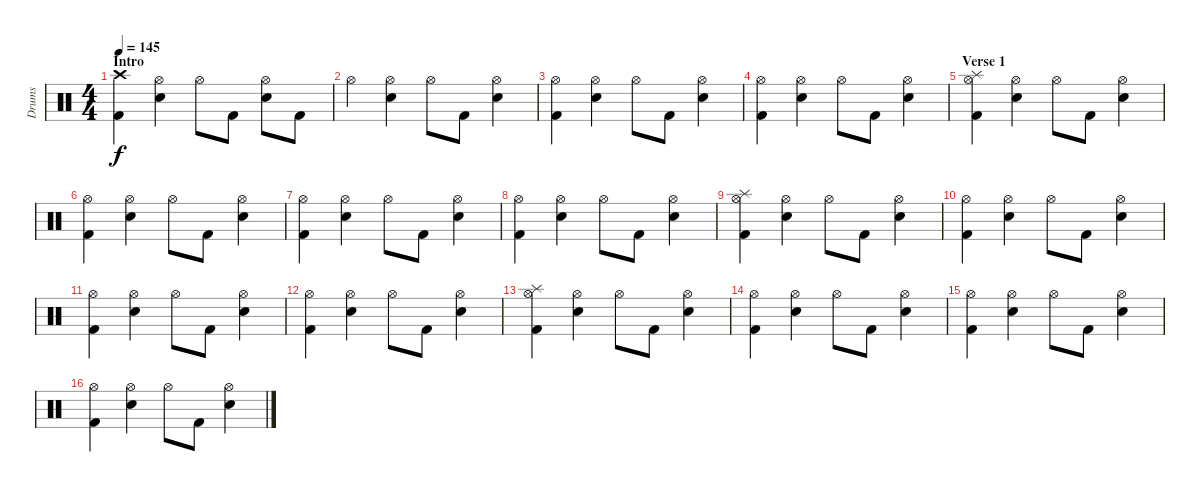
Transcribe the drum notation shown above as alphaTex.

\track ("Drums" "Drums") {instrument percussion}
\staff {score}
\articulation defaults
\ts (4 4)
\section ("" "Intro")
\tempo 145
\clef neutral
\ks c
("Crash high (hit)" "Kick (hit) 2").4{dy f} ("Hi-Hat (open)" "Snare (hit) 2").4 "Hi-Hat (open)".8 "Kick (hit) 2".8 ("Hi-Hat (open)" "Snare (hit) 2").8 "Kick (hit) 2".8 |
"Hi-Hat (open)".4 ("Hi-Hat (open)" "Snare (hit) 2").4 "Hi-Hat (open)".8 "Kick (hit) 2".8 ("Hi-Hat (open)" "Snare (hit) 2").4 |
("Hi-Hat (open)" "Kick (hit) 2").4 ("Hi-Hat (open)" "Snare (hit) 2").4 "Hi-Hat (open)".8 "Kick (hit) 2".8 ("Hi-Hat (open)" "Snare (hit) 2").4 |
("Hi-Hat (open)" "Kick (hit) 2").4 ("Hi-Hat (open)" "Snare (hit) 2").4 "Hi-Hat (open)".8 "Kick (hit) 2".8 ("Hi-Hat (open)" "Snare (hit) 2").4 |
\section ("" "Verse 1")
("Splash (hit)" "Hi-Hat (open)" "Kick (hit) 2").4 ("Hi-Hat (open)" "Snare (hit) 2").4 "Hi-Hat (open)".8 "Kick (hit) 2".8 ("Hi-Hat (open)" "Snare (hit) 2").4 |
("Hi-Hat (open)" "Kick (hit) 2").4 ("Hi-Hat (open)" "Snare (hit) 2").4 "Hi-Hat (open)".8 "Kick (hit) 2".8 ("Hi-Hat (open)" "Snare (hit) 2").4 |
("Hi-Hat (open)" "Kick (hit) 2").4 ("Hi-Hat (open)" "Snare (hit) 2").4 "Hi-Hat (open)".8 "Kick (hit) 2".8 ("Hi-Hat (open)" "Snare (hit) 2").4 |
("Hi-Hat (open)" "Kick (hit) 2").4 ("Hi-Hat (open)" "Snare (hit) 2").4 "Hi-Hat (open)".8 "Kick (hit) 2".8 ("Hi-Hat (open)" "Snare (hit) 2").4 |
("Splash (hit)" "Hi-Hat (open)" "Kick (hit) 2").4 ("Hi-Hat (open)" "Snare (hit) 2").4 "Hi-Hat (open)".8 "Kick (hit) 2".8 ("Hi-Hat (open)" "Snare (hit) 2").4 |
("Hi-Hat (open)" "Kick (hit) 2").4 ("Hi-Hat (open)" "Snare (hit) 2").4 "Hi-Hat (open)".8 "Kick (hit) 2".8 ("Hi-Hat (open)" "Snare (hit) 2").4 |
("Hi-Hat (open)" "Kick (hit) 2").4 ("Hi-Hat (open)" "Snare (hit) 2").4 "Hi-Hat (open)".8 "Kick (hit) 2".8 ("Hi-Hat (open)" "Snare (hit) 2").4 |
("Hi-Hat (open)" "Kick (hit) 2").4 ("Hi-Hat (open)" "Snare (hit) 2").4 "Hi-Hat (open)".8 "Kick (hit) 2".8 ("Hi-Hat (open)" "Snare (hit) 2").4 |
("Splash (hit)" "Hi-Hat (open)" "Kick (hit) 2").4 ("Hi-Hat (open)" "Snare (hit) 2").4 "Hi-Hat (open)".8 "Kick (hit) 2".8 ("Hi-Hat (open)" "Snare (hit) 2").4 |
("Hi-Hat (open)" "Kick (hit) 2").4 ("Hi-Hat (open)" "Snare (hit) 2").4 "Hi-Hat (open)".8 "Kick (hit) 2".8 ("Hi-Hat (open)" "Snare (hit) 2").4 |
("Hi-Hat (open)" "Kick (hit) 2").4 ("Hi-Hat (open)" "Snare (hit) 2").4 "Hi-Hat (open)".8 "Kick (hit) 2".8 ("Hi-Hat (open)" "Snare (hit) 2").4 |
("Hi-Hat (open)" "Kick (hit) 2").4 ("Hi-Hat (open)" "Snare (hit) 2").4 "Hi-Hat (open)".8 "Kick (hit) 2".8 ("Hi-Hat (open)" "Snare (hit) 2").4
